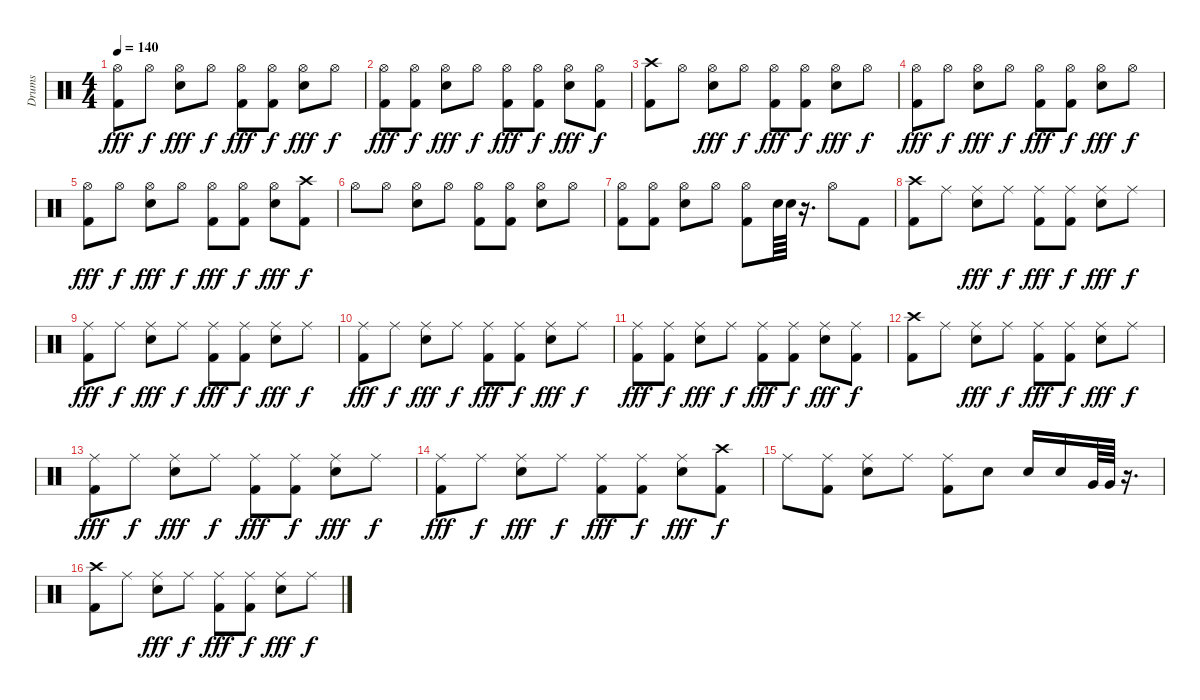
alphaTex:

\track ("Drums" "Drums") {instrument percussion}
\staff {score}
\articulation defaults
\ts (4 4)
\tempo 140
\clef neutral
\ks c
("Hi-Hat (open)" "Kick (hit) 2").8{dy fff} "Hi-Hat (open)".8{dy f} ("Hi-Hat (open)" "Snare (hit) 2").8{dy fff} "Hi-Hat (open)".8{dy f} ("Hi-Hat (open)" "Kick (hit) 2").8{dy fff} ("Hi-Hat (open)" "Kick (hit) 2").8{dy f} ("Hi-Hat (open)" "Snare (hit) 2").8{dy fff} "Hi-Hat (open)".8{dy f} |
("Hi-Hat (open)" "Kick (hit) 2").8{dy fff} ("Hi-Hat (open)" "Kick (hit) 2").8{dy f} ("Hi-Hat (open)" "Snare (hit) 2").8{dy fff} "Hi-Hat (open)".8{dy f} ("Hi-Hat (open)" "Kick (hit) 2").8{dy fff} ("Hi-Hat (open)" "Kick (hit) 2").8{dy f} ("Hi-Hat (open)" "Snare (hit) 2").8{dy fff} ("Hi-Hat (open)" "Kick (hit) 2").8{dy f} |
("Crash high (hit)" "Kick (hit) 2").8 "Hi-Hat (open)".8 ("Hi-Hat (open)" "Snare (hit) 2").8{dy fff} "Hi-Hat (open)".8{dy f} ("Hi-Hat (open)" "Kick (hit) 2").8{dy fff} ("Hi-Hat (open)" "Kick (hit) 2").8{dy f} ("Hi-Hat (open)" "Snare (hit) 2").8{dy fff} "Hi-Hat (open)".8{dy f} |
("Hi-Hat (open)" "Kick (hit) 2").8{dy fff} "Hi-Hat (open)".8{dy f} ("Hi-Hat (open)" "Snare (hit) 2").8{dy fff} "Hi-Hat (open)".8{dy f} ("Hi-Hat (open)" "Kick (hit) 2").8{dy fff} ("Hi-Hat (open)" "Kick (hit) 2").8{dy f} ("Hi-Hat (open)" "Snare (hit) 2").8{dy fff} "Hi-Hat (open)".8{dy f} |
("Hi-Hat (open)" "Kick (hit) 2").8{dy fff} "Hi-Hat (open)".8{dy f} ("Hi-Hat (open)" "Snare (hit) 2").8{dy fff} "Hi-Hat (open)".8{dy f} ("Hi-Hat (open)" "Kick (hit) 2").8{dy fff} ("Hi-Hat (open)" "Kick (hit) 2").8{dy f} ("Hi-Hat (open)" "Snare (hit) 2").8{dy fff} ("Crash high (hit)" "Kick (hit) 2").8{dy f} |
"Hi-Hat (open)".8 "Hi-Hat (open)".8 ("Hi-Hat (open)" "Snare (hit) 2").8 "Hi-Hat (open)".8 ("Hi-Hat (open)" "Kick (hit) 2").8 ("Hi-Hat (open)" "Kick (hit) 2").8 ("Hi-Hat (open)" "Snare (hit) 2").8 "Hi-Hat (open)".8 |
("Hi-Hat (open)" "Kick (hit) 2").8 ("Hi-Hat (open)" "Kick (hit) 2").8 ("Hi-Hat (open)" "Snare (hit) 2").8 "Hi-Hat (open)".8 ("Hi-Hat (open)" "Kick (hit) 2").8 "Snare (hit) 2".64 "Snare (hit) 2".64 r.16{d} "Hi-Hat (open)".8 "Kick (hit) 2".8 |
("Crash high (hit)" "Kick (hit) 2").8 "Ride (middle)".8 ("Ride (middle)" "Snare (hit) 2").8{dy fff} "Ride (middle)".8{dy f} ("Ride (middle)" "Kick (hit) 2").8{dy fff} ("Ride (middle)" "Kick (hit) 2").8{dy f} ("Ride (middle)" "Snare (hit) 2").8{dy fff} "Ride (middle)".8{dy f} |
("Ride (middle)" "Kick (hit) 2").8{dy fff} "Ride (middle)".8{dy f} ("Ride (middle)" "Snare (hit) 2").8{dy fff} "Ride (middle)".8{dy f} ("Ride (middle)" "Kick (hit) 2").8{dy fff} ("Ride (middle)" "Kick (hit) 2").8{dy f} ("Ride (middle)" "Snare (hit) 2").8{dy fff} "Ride (middle)".8{dy f} |
("Ride (middle)" "Kick (hit) 2").8{dy fff} "Ride (middle)".8{dy f} ("Ride (middle)" "Snare (hit) 2").8{dy fff} "Ride (middle)".8{dy f} ("Ride (middle)" "Kick (hit) 2").8{dy fff} ("Ride (middle)" "Kick (hit) 2").8{dy f} ("Ride (middle)" "Snare (hit) 2").8{dy fff} "Ride (middle)".8{dy f} |
("Ride (middle)" "Kick (hit) 2").8{dy fff} ("Ride (middle)" "Kick (hit) 2").8{dy f} ("Ride (middle)" "Snare (hit) 2").8{dy fff} "Ride (middle)".8{dy f} ("Ride (middle)" "Kick (hit) 2").8{dy fff} ("Ride (middle)" "Kick (hit) 2").8{dy f} ("Ride (middle)" "Snare (hit) 2").8{dy fff} ("Ride (middle)" "Kick (hit) 2").8{dy f} |
("Crash high (hit)" "Kick (hit) 2").8 "Ride (middle)".8 ("Ride (middle)" "Snare (hit) 2").8{dy fff} "Ride (middle)".8{dy f} ("Ride (middle)" "Kick (hit) 2").8{dy fff} ("Ride (middle)" "Kick (hit) 2").8{dy f} ("Ride (middle)" "Snare (hit) 2").8{dy fff} "Ride (middle)".8{dy f} |
("Ride (middle)" "Kick (hit) 2").8{dy fff} "Ride (middle)".8{dy f} ("Ride (middle)" "Snare (hit) 2").8{dy fff} "Ride (middle)".8{dy f} ("Ride (middle)" "Kick (hit) 2").8{dy fff} ("Ride (middle)" "Kick (hit) 2").8{dy f} ("Ride (middle)" "Snare (hit) 2").8{dy fff} "Ride (middle)".8{dy f} |
("Ride (middle)" "Kick (hit) 2").8{dy fff} "Ride (middle)".8{dy f} ("Ride (middle)" "Snare (hit) 2").8{dy fff} "Ride (middle)".8{dy f} ("Ride (middle)" "Kick (hit) 2").8{dy fff} ("Ride (middle)" "Kick (hit) 2").8{dy f} ("Ride (middle)" "Snare (hit) 2").8{dy fff} ("Crash high (hit)" "Kick (hit) 2").8{dy f} |
"Ride (middle)".8 ("Ride (middle)" "Kick (hit) 2").8 ("Ride (middle)" "Snare (hit) 2").8 "Ride (middle)".8 ("Ride (middle)" "Kick (hit) 2").8 "Snare (hit) 2".8 "Snare (hit) 2".16 "Snare (hit) 2".16 "Very Low Tom (hit)".64 "Very Low Tom (hit)".64 r.16{d} |
("Crash high (hit)" "Kick (hit) 2").8 "Ride (middle)".8 ("Ride (middle)" "Snare (hit) 2").8{dy fff} "Ride (middle)".8{dy f} ("Ride (middle)" "Kick (hit) 2").8{dy fff} ("Ride (middle)" "Kick (hit) 2").8{dy f} ("Ride (middle)" "Snare (hit) 2").8{dy fff} "Ride (middle)".8{dy f}
